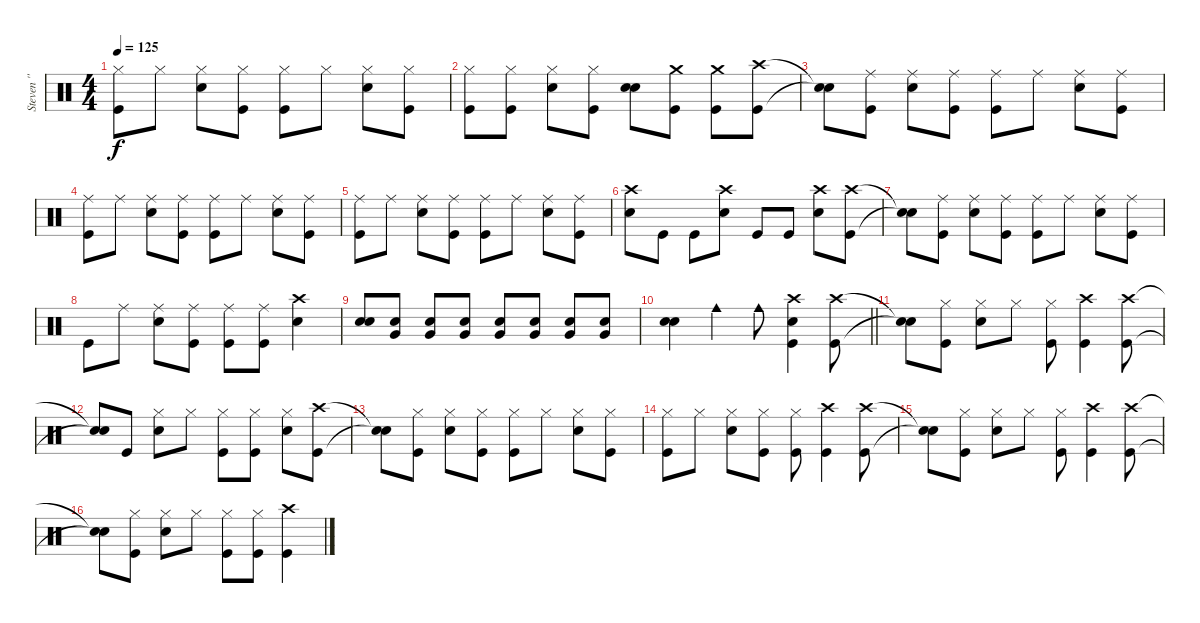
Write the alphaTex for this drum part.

\track ("Steven '' Popcorn '' Adler" "Steven '' ") {instrument percussion}
\staff {score}
\articulation defaults
\ts (4 4)
\tempo 125
\clef neutral
\ks c
("Hi-Hat (closed)" "Kick (hit)").8{dy f} "Hi-Hat (closed)".8 ("Hi-Hat (closed)" "Snare (hit) 2").8 ("Hi-Hat (closed)" "Kick (hit)").8 ("Hi-Hat (closed)" "Kick (hit)").8 "Hi-Hat (closed)".8 ("Hi-Hat (closed)" "Snare (hit) 2").8 ("Hi-Hat (closed)" "Kick (hit)").8 |
("Hi-Hat (closed)" "Kick (hit)").8 ("Hi-Hat (closed)" "Kick (hit)").8 ("Hi-Hat (closed)" "Snare (hit) 2").8 ("Hi-Hat (closed)" "Kick (hit)").8 ("Snare (hit) 2" "Snare (hit) 2").8 ("Crash medium (hit)" "Kick (hit)").8 ("Crash medium (hit)" "Kick (hit)").8 ("Crash high (hit)" "Kick (hit)").8 |
("Snare (hit)"{t} "Snare (hit)"{t}).8 ("Ride (middle)" "Kick (hit)").8 ("Ride (middle)" "Snare (hit) 2").8 ("Ride (middle)" "Kick (hit)").8 ("Ride (middle)" "Kick (hit)").8 "Ride (middle)".8 ("Ride (middle)" "Snare (hit) 2").8 ("Ride (middle)" "Kick (hit)").8 |
("Ride (middle)" "Kick (hit)").8 "Ride (middle)".8 ("Ride (middle)" "Snare (hit) 2").8 ("Ride (middle)" "Kick (hit)").8 ("Ride (middle)" "Kick (hit)").8 "Ride (middle)".8 ("Ride (middle)" "Snare (hit) 2").8 ("Ride (middle)" "Kick (hit)").8 |
("Ride (middle)" "Kick (hit)").8 "Ride (middle)".8 ("Ride (middle)" "Snare (hit) 2").8 ("Ride (middle)" "Kick (hit)").8 ("Ride (middle)" "Kick (hit)").8 "Ride (middle)".8 ("Ride (middle)" "Snare (hit) 2").8 ("Ride (middle)" "Kick (hit)").8 |
("Crash high (hit)" "Snare (hit) 2").8 "Kick (hit)".8 "Kick (hit)".8 ("Crash high (hit)" "Snare (hit) 2").8 "Kick (hit)".8 "Kick (hit)".8 ("Crash high (hit)" "Snare (hit) 2").8 ("Crash high (hit)" "Kick (hit)").8 |
("Snare (hit)"{t} "Snare (hit)"{t}).8 ("Ride (middle)" "Kick (hit)").8 ("Ride (middle)" "Snare (hit) 2").8 ("Ride (middle)" "Kick (hit)").8 ("Ride (middle)" "Kick (hit)").8 "Ride (middle)".8 ("Ride (middle)" "Snare (hit) 2").8 ("Ride (middle)" "Kick (hit)").8 |
"Kick (hit)".8 "Ride (middle)".8 ("Ride (middle)" "Snare (hit) 2").8 ("Ride (middle)" "Kick (hit)").8 ("Ride (middle)" "Kick (hit)").8 ("Ride (middle)" "Kick (hit)").8 ("Crash high (hit)" "Snare (hit) 2").4 |
("Snare (hit) 2" "Snare (hit) 2").8 ("Snare (hit) 2" "Very Low Tom (hit)").8 ("Snare (hit) 2" "Very Low Tom (hit)").8 ("Snare (hit) 2" "Very Low Tom (hit)").8 ("Snare (hit) 2" "Very Low Tom (hit)").8 ("Snare (hit) 2" "Very Low Tom (hit)").8 ("Snare (hit) 2" "Very Low Tom (hit)").8 ("Snare (hit) 2" "Very Low Tom (hit)").8 |
\barLineRight lightlight
("Snare (hit) 2" "Snare (hit) 2").4 "Cowbell medium (hit)".4 "Cowbell medium (hit)".8 ("Crash high (hit)" "Kick (hit)" "Snare (hit)").4 ("Crash high (hit)" "Kick (hit)").8 |
("Snare (hit)"{t} "Snare (hit)"{t}).8 ("Hi-Hat (closed)" "Kick (hit)").8 ("Hi-Hat (closed)" "Snare (hit) 2").8 "Hi-Hat (closed)".8 ("Hi-Hat (closed)" "Kick (hit)").8 ("Crash high (hit)" "Kick (hit)").4 ("Crash high (hit)" "Kick (hit)").8 |
("Snare (hit)"{t} "Snare (hit)"{t}).8 "Kick (hit)".8 ("Hi-Hat (closed)" "Snare (hit) 2").8 "Hi-Hat (closed)".8 ("Hi-Hat (closed)" "Kick (hit)").8 ("Hi-Hat (closed)" "Kick (hit)").8 ("Hi-Hat (closed)" "Snare (hit) 2").8 ("Crash high (hit)" "Kick (hit)").8 |
("Snare (hit)"{t} "Snare (hit)"{t}).8 ("Hi-Hat (closed)" "Kick (hit)").8 ("Hi-Hat (closed)" "Snare (hit) 2").8 ("Hi-Hat (closed)" "Kick (hit)").8 ("Hi-Hat (closed)" "Kick (hit)").8 "Hi-Hat (closed)".8 ("Hi-Hat (closed)" "Snare (hit) 2").8 ("Hi-Hat (closed)" "Kick (hit)").8 |
("Hi-Hat (closed)" "Kick (hit)").8 "Hi-Hat (closed)".8 ("Hi-Hat (closed)" "Snare (hit) 2").8 ("Hi-Hat (closed)" "Kick (hit)").8 ("Hi-Hat (closed)" "Kick (hit)").8 ("Crash high (hit)" "Kick (hit)").4 ("Crash high (hit)" "Kick (hit)").8 |
("Snare (hit)"{t} "Snare (hit)"{t}).8 ("Hi-Hat (closed)" "Kick (hit)").8 ("Hi-Hat (closed)" "Snare (hit) 2").8 "Hi-Hat (closed)".8 ("Hi-Hat (closed)" "Kick (hit)").8 ("Crash high (hit)" "Kick (hit)").4 ("Crash high (hit)" "Kick (hit)").8 |
("Snare (hit)"{t} "Snare (hit)"{t}).8 ("Hi-Hat (closed)" "Kick (hit)").8 ("Hi-Hat (closed)" "Snare (hit) 2").8 "Hi-Hat (closed)".8 ("Hi-Hat (closed)" "Kick (hit)").8 ("Hi-Hat (closed)" "Kick (hit)").8 ("Crash high (hit)" "Kick (hit)").4
